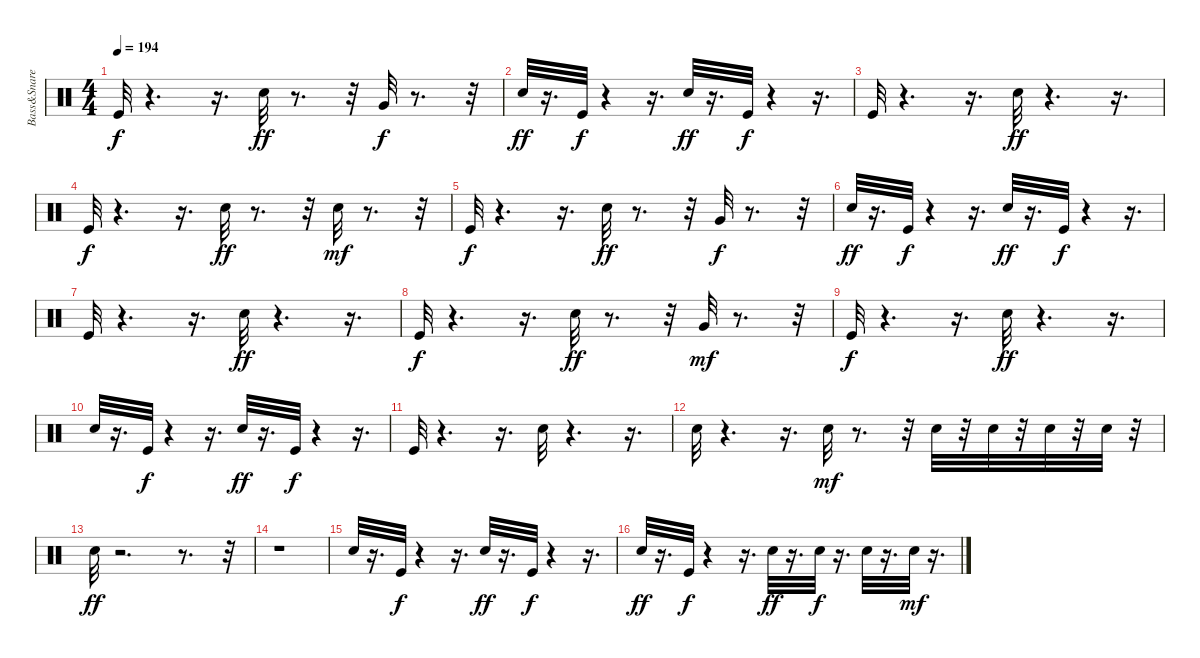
\track ("Bass&Snare" "Bass&Snare") {instrument percussion}
\staff {score}
\articulation defaults
\ts (4 4)
\tempo 194
\clef neutral
\ks c "Kick (hit)".32{dy f}
r.4{d} r.16{d} "Snare (hit) 2".32{dy ff} r.8{d} r.32 "Very Low Tom (hit)".32{dy f} r.8{d} r.32 |
"Snare (hit) 2".32{dy ff} r.16{d} "Kick (hit)".32{dy f} r.4 r.16{d} "Snare (hit) 2".32{dy ff} r.16{d} "Kick (hit)".32{dy f} r.4 r.16{d} |
"Kick (hit)".32 r.4{d} r.16{d} "Snare (hit) 2".32{dy ff} r.4{d} r.16{d} |
"Kick (hit)".32{dy f} r.4{d} r.16{d} "Snare (hit) 2".32{dy ff} r.8{d} r.32 "Snare (hit) 2".32{dy mf} r.8{d} r.32 |
"Kick (hit)".32{dy f} r.4{d} r.16{d} "Snare (hit) 2".32{dy ff} r.8{d} r.32 "Very Low Tom (hit)".32{dy f} r.8{d} r.32 |
"Snare (hit) 2".32{dy ff} r.16{d} "Kick (hit)".32{dy f} r.4 r.16{d} "Snare (hit) 2".32{dy ff} r.16{d} "Kick (hit)".32{dy f} r.4 r.16{d} |
"Kick (hit)".32 r.4{d} r.16{d} "Snare (hit) 2".32{dy ff} r.4{d} r.16{d} |
"Kick (hit)".32{dy f} r.4{d} r.16{d} "Snare (hit) 2".32{dy ff} r.8{d} r.32 "Very Low Tom (hit)".32{dy mf} r.8{d} r.32 |
"Kick (hit)".32{dy f} r.4{d} r.16{d} "Snare (hit) 2".32{dy ff} r.4{d} r.16{d} |
"Snare (hit) 2".32 r.16{d} "Kick (hit)".32{dy f} r.4 r.16{d} "Snare (hit) 2".32{dy ff} r.16{d} "Kick (hit)".32{dy f} r.4 r.16{d} |
"Kick (hit)".32 r.4{d} r.16{d} "Snare (hit) 2".32 r.4{d} r.16{d} |
"Snare (hit) 2".32 r.4{d} r.16{d} "Snare (hit) 2".32{dy mf} r.8{d} r.32 "Snare (hit) 2".32 r.32 "Snare (hit) 2".32 r.32 "Snare (hit) 2".32 r.32 "Snare (hit) 2".32 r.32 |
"Snare (hit) 2".32{dy ff} r.2{d} r.8{d} r.32 |
r.1 |
"Snare (hit) 2".32 r.16{d} "Kick (hit)".32{dy f} r.4 r.16{d} "Snare (hit) 2".32{dy ff} r.16{d} "Kick (hit)".32{dy f} r.4 r.16{d} |
"Snare (hit) 2".32{dy ff} r.16{d} "Kick (hit)".32{dy f} r.4 r.16{d} "Snare (hit) 2".32{dy ff} r.16{d} "Snare (hit) 2".32{dy f} r.16{d} "Snare (hit) 2".32 r.16{d} "Snare (hit) 2".32{dy mf} r.16{d}
